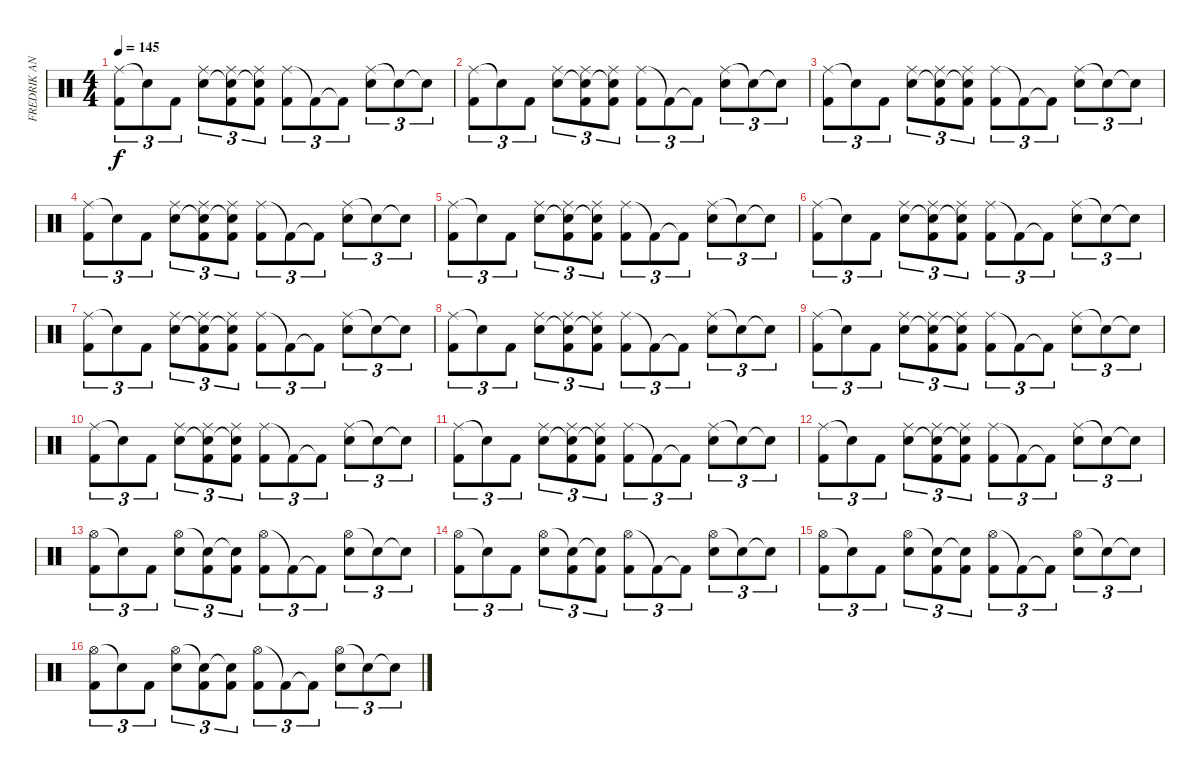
\track ("FREDRIK ANDERSSON" "FREDRIK AN") {instrument percussion}
\staff {score}
\articulation defaults
\ts (4 4)
\tempo 145
\clef neutral
\ks c
("Ride (middle)" "Kick (hit) 2").8{tu (3 2) dy f} "Snare (hit)"{t}.8{tu (3 2)} "Kick (hit) 2".8{tu (3 2)} ("Ride (middle)" "Snare (hit) 2").8{tu (3 2)} ("Ride (middle)" "Snare (hit)"{t} "Kick (hit) 2").8{tu (3 2)} ("Ride (middle)" "Snare (hit)"{t} "Kick (hit) 2").8{tu (3 2)} ("Ride (middle)" "Kick (hit) 2").8{tu (3 2)} "Kick (hit) 2"{t}.8{tu (3 2)} "Kick (hit) 2"{t}.8{tu (3 2)} ("Ride (middle)" "Snare (hit) 2").8{tu (3 2)} "Snare (hit)"{t}.8{tu (3 2)} "Snare (hit)"{t}.8{tu (3 2)} |
("Ride (middle)" "Kick (hit) 2").8{tu (3 2)} "Snare (hit)"{t}.8{tu (3 2)} "Kick (hit) 2".8{tu (3 2)} ("Ride (middle)" "Snare (hit) 2").8{tu (3 2)} ("Ride (middle)" "Snare (hit)"{t} "Kick (hit) 2").8{tu (3 2)} ("Ride (middle)" "Snare (hit)"{t} "Kick (hit) 2").8{tu (3 2)} ("Ride (middle)" "Kick (hit) 2").8{tu (3 2)} "Kick (hit) 2"{t}.8{tu (3 2)} "Kick (hit) 2"{t}.8{tu (3 2)} ("Ride (middle)" "Snare (hit) 2").8{tu (3 2)} "Snare (hit)"{t}.8{tu (3 2)} "Snare (hit)"{t}.8{tu (3 2)} |
("Ride (middle)" "Kick (hit) 2").8{tu (3 2)} "Snare (hit)"{t}.8{tu (3 2)} "Kick (hit) 2".8{tu (3 2)} ("Ride (middle)" "Snare (hit) 2").8{tu (3 2)} ("Ride (middle)" "Snare (hit)"{t} "Kick (hit) 2").8{tu (3 2)} ("Ride (middle)" "Snare (hit)"{t} "Kick (hit) 2").8{tu (3 2)} ("Ride (middle)" "Kick (hit) 2").8{tu (3 2)} "Kick (hit) 2"{t}.8{tu (3 2)} "Kick (hit) 2"{t}.8{tu (3 2)} ("Ride (middle)" "Snare (hit) 2").8{tu (3 2)} "Snare (hit)"{t}.8{tu (3 2)} "Snare (hit)"{t}.8{tu (3 2)} |
("Ride (middle)" "Kick (hit) 2").8{tu (3 2)} "Snare (hit)"{t}.8{tu (3 2)} "Kick (hit) 2".8{tu (3 2)} ("Ride (middle)" "Snare (hit) 2").8{tu (3 2)} ("Ride (middle)" "Snare (hit)"{t} "Kick (hit) 2").8{tu (3 2)} ("Ride (middle)" "Snare (hit)"{t} "Kick (hit) 2").8{tu (3 2)} ("Ride (middle)" "Kick (hit) 2").8{tu (3 2)} "Kick (hit) 2"{t}.8{tu (3 2)} "Kick (hit) 2"{t}.8{tu (3 2)} ("Ride (middle)" "Snare (hit) 2").8{tu (3 2)} "Snare (hit)"{t}.8{tu (3 2)} "Snare (hit)"{t}.8{tu (3 2)} |
("Ride (middle)" "Kick (hit) 2").8{tu (3 2)} "Snare (hit)"{t}.8{tu (3 2)} "Kick (hit) 2".8{tu (3 2)} ("Ride (middle)" "Snare (hit) 2").8{tu (3 2)} ("Ride (middle)" "Snare (hit)"{t} "Kick (hit) 2").8{tu (3 2)} ("Ride (middle)" "Snare (hit)"{t} "Kick (hit) 2").8{tu (3 2)} ("Ride (middle)" "Kick (hit) 2").8{tu (3 2)} "Kick (hit) 2"{t}.8{tu (3 2)} "Kick (hit) 2"{t}.8{tu (3 2)} ("Ride (middle)" "Snare (hit) 2").8{tu (3 2)} "Snare (hit)"{t}.8{tu (3 2)} "Snare (hit)"{t}.8{tu (3 2)} |
("Ride (middle)" "Kick (hit) 2").8{tu (3 2)} "Snare (hit)"{t}.8{tu (3 2)} "Kick (hit) 2".8{tu (3 2)} ("Ride (middle)" "Snare (hit) 2").8{tu (3 2)} ("Ride (middle)" "Snare (hit)"{t} "Kick (hit) 2").8{tu (3 2)} ("Ride (middle)" "Snare (hit)"{t} "Kick (hit) 2").8{tu (3 2)} ("Ride (middle)" "Kick (hit) 2").8{tu (3 2)} "Kick (hit) 2"{t}.8{tu (3 2)} "Kick (hit) 2"{t}.8{tu (3 2)} ("Ride (middle)" "Snare (hit) 2").8{tu (3 2)} "Snare (hit)"{t}.8{tu (3 2)} "Snare (hit)"{t}.8{tu (3 2)} |
("Ride (middle)" "Kick (hit) 2").8{tu (3 2)} "Snare (hit)"{t}.8{tu (3 2)} "Kick (hit) 2".8{tu (3 2)} ("Ride (middle)" "Snare (hit) 2").8{tu (3 2)} ("Ride (middle)" "Snare (hit)"{t} "Kick (hit) 2").8{tu (3 2)} ("Ride (middle)" "Snare (hit)"{t} "Kick (hit) 2").8{tu (3 2)} ("Ride (middle)" "Kick (hit) 2").8{tu (3 2)} "Kick (hit) 2"{t}.8{tu (3 2)} "Kick (hit) 2"{t}.8{tu (3 2)} ("Ride (middle)" "Snare (hit) 2").8{tu (3 2)} "Snare (hit)"{t}.8{tu (3 2)} "Snare (hit)"{t}.8{tu (3 2)} |
("Ride (middle)" "Kick (hit) 2").8{tu (3 2)} "Snare (hit)"{t}.8{tu (3 2)} "Kick (hit) 2".8{tu (3 2)} ("Ride (middle)" "Snare (hit) 2").8{tu (3 2)} ("Ride (middle)" "Snare (hit)"{t} "Kick (hit) 2").8{tu (3 2)} ("Ride (middle)" "Snare (hit)"{t} "Kick (hit) 2").8{tu (3 2)} ("Ride (middle)" "Kick (hit) 2").8{tu (3 2)} "Kick (hit) 2"{t}.8{tu (3 2)} "Kick (hit) 2"{t}.8{tu (3 2)} ("Ride (middle)" "Snare (hit) 2").8{tu (3 2)} "Snare (hit)"{t}.8{tu (3 2)} "Snare (hit)"{t}.8{tu (3 2)} |
("Ride (middle)" "Kick (hit) 2").8{tu (3 2)} "Snare (hit)"{t}.8{tu (3 2)} "Kick (hit) 2".8{tu (3 2)} ("Ride (middle)" "Snare (hit) 2").8{tu (3 2)} ("Ride (middle)" "Snare (hit)"{t} "Kick (hit) 2").8{tu (3 2)} ("Ride (middle)" "Snare (hit)"{t} "Kick (hit) 2").8{tu (3 2)} ("Ride (middle)" "Kick (hit) 2").8{tu (3 2)} "Kick (hit) 2"{t}.8{tu (3 2)} "Kick (hit) 2"{t}.8{tu (3 2)} ("Ride (middle)" "Snare (hit) 2").8{tu (3 2)} "Snare (hit)"{t}.8{tu (3 2)} "Snare (hit)"{t}.8{tu (3 2)} |
("Ride (middle)" "Kick (hit) 2").8{tu (3 2)} "Snare (hit)"{t}.8{tu (3 2)} "Kick (hit) 2".8{tu (3 2)} ("Ride (middle)" "Snare (hit) 2").8{tu (3 2)} ("Ride (middle)" "Snare (hit)"{t} "Kick (hit) 2").8{tu (3 2)} ("Ride (middle)" "Snare (hit)"{t} "Kick (hit) 2").8{tu (3 2)} ("Ride (middle)" "Kick (hit) 2").8{tu (3 2)} "Kick (hit) 2"{t}.8{tu (3 2)} "Kick (hit) 2"{t}.8{tu (3 2)} ("Ride (middle)" "Snare (hit) 2").8{tu (3 2)} "Snare (hit)"{t}.8{tu (3 2)} "Snare (hit)"{t}.8{tu (3 2)} |
("Ride (middle)" "Kick (hit) 2").8{tu (3 2)} "Snare (hit)"{t}.8{tu (3 2)} "Kick (hit) 2".8{tu (3 2)} ("Ride (middle)" "Snare (hit) 2").8{tu (3 2)} ("Ride (middle)" "Snare (hit)"{t} "Kick (hit) 2").8{tu (3 2)} ("Ride (middle)" "Snare (hit)"{t} "Kick (hit) 2").8{tu (3 2)} ("Ride (middle)" "Kick (hit) 2").8{tu (3 2)} "Kick (hit) 2"{t}.8{tu (3 2)} "Kick (hit) 2"{t}.8{tu (3 2)} ("Ride (middle)" "Snare (hit) 2").8{tu (3 2)} "Snare (hit)"{t}.8{tu (3 2)} "Snare (hit)"{t}.8{tu (3 2)} |
("Ride (middle)" "Kick (hit) 2").8{tu (3 2)} "Snare (hit)"{t}.8{tu (3 2)} "Kick (hit) 2".8{tu (3 2)} ("Ride (middle)" "Snare (hit) 2").8{tu (3 2)} ("Ride (middle)" "Snare (hit)"{t} "Kick (hit) 2").8{tu (3 2)} ("Ride (middle)" "Snare (hit)"{t} "Kick (hit) 2").8{tu (3 2)} ("Ride (middle)" "Kick (hit) 2").8{tu (3 2)} "Kick (hit) 2"{t}.8{tu (3 2)} "Kick (hit) 2"{t}.8{tu (3 2)} ("Ride (middle)" "Snare (hit) 2").8{tu (3 2)} "Snare (hit)"{t}.8{tu (3 2)} "Snare (hit)"{t}.8{tu (3 2)} |
("Hi-Hat (open)" "Kick (hit) 2").8{tu (3 2)} "Snare (hit)"{t}.8{tu (3 2)} "Kick (hit) 2".8{tu (3 2)} ("Hi-Hat (open)" "Snare (hit) 2").8{tu (3 2)} ("Snare (hit)"{t} "Kick (hit) 2").8{tu (3 2)} ("Snare (hit)"{t} "Kick (hit) 2").8{tu (3 2)} ("Hi-Hat (open)" "Kick (hit) 2").8{tu (3 2)} "Kick (hit) 2"{t}.8{tu (3 2)} "Kick (hit) 2"{t}.8{tu (3 2)} ("Hi-Hat (open)" "Snare (hit) 2").8{tu (3 2)} "Snare (hit)"{t}.8{tu (3 2)} "Snare (hit)"{t}.8{tu (3 2)} |
("Hi-Hat (open)" "Kick (hit) 2").8{tu (3 2)} "Snare (hit)"{t}.8{tu (3 2)} "Kick (hit) 2".8{tu (3 2)} ("Hi-Hat (open)" "Snare (hit) 2").8{tu (3 2)} ("Snare (hit)"{t} "Kick (hit) 2").8{tu (3 2)} ("Snare (hit)"{t} "Kick (hit) 2").8{tu (3 2)} ("Hi-Hat (open)" "Kick (hit) 2").8{tu (3 2)} "Kick (hit) 2"{t}.8{tu (3 2)} "Kick (hit) 2"{t}.8{tu (3 2)} ("Hi-Hat (open)" "Snare (hit) 2").8{tu (3 2)} "Snare (hit)"{t}.8{tu (3 2)} "Snare (hit)"{t}.8{tu (3 2)} |
("Hi-Hat (open)" "Kick (hit) 2").8{tu (3 2)} "Snare (hit)"{t}.8{tu (3 2)} "Kick (hit) 2".8{tu (3 2)} ("Hi-Hat (open)" "Snare (hit) 2").8{tu (3 2)} ("Snare (hit)"{t} "Kick (hit) 2").8{tu (3 2)} ("Snare (hit)"{t} "Kick (hit) 2").8{tu (3 2)} ("Hi-Hat (open)" "Kick (hit) 2").8{tu (3 2)} "Kick (hit) 2"{t}.8{tu (3 2)} "Kick (hit) 2"{t}.8{tu (3 2)} ("Hi-Hat (open)" "Snare (hit) 2").8{tu (3 2)} "Snare (hit)"{t}.8{tu (3 2)} "Snare (hit)"{t}.8{tu (3 2)} |
("Hi-Hat (open)" "Kick (hit) 2").8{tu (3 2)} "Snare (hit)"{t}.8{tu (3 2)} "Kick (hit) 2".8{tu (3 2)} ("Hi-Hat (open)" "Snare (hit) 2").8{tu (3 2)} ("Snare (hit)"{t} "Kick (hit) 2").8{tu (3 2)} ("Snare (hit)"{t} "Kick (hit) 2").8{tu (3 2)} ("Hi-Hat (open)" "Kick (hit) 2").8{tu (3 2)} "Kick (hit) 2"{t}.8{tu (3 2)} "Kick (hit) 2"{t}.8{tu (3 2)} ("Hi-Hat (open)" "Snare (hit) 2").8{tu (3 2)} "Snare (hit)"{t}.8{tu (3 2)} "Snare (hit)"{t}.8{tu (3 2)}
